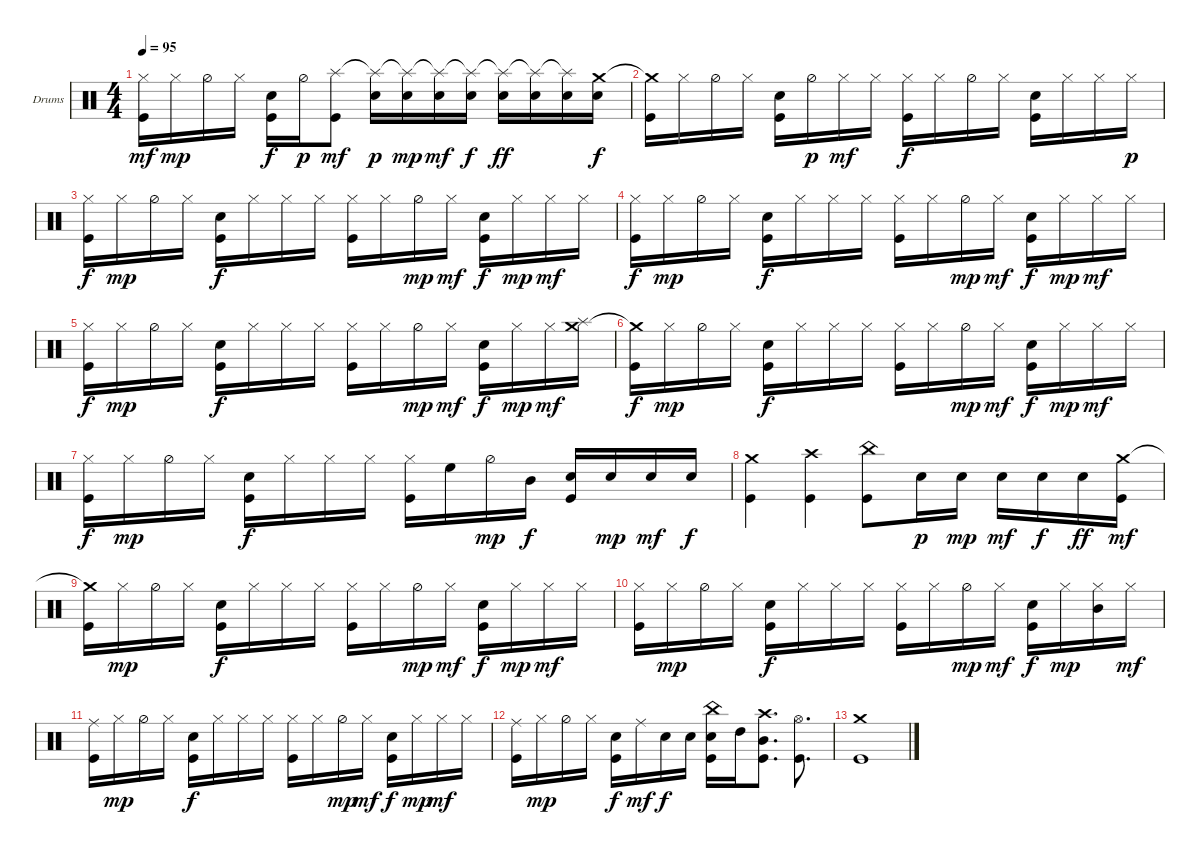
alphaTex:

\defaultSystemsLayout 4
\bracketExtendMode groupsimilarinstruments
\firstSystemTrackNameOrientation horizontal
\otherSystemsTrackNameOrientation horizontal
\track ("Drumkit" "Drums") {instrument percussion}
\staff {score}
\articulation defaults
\ts (4 4)
\tempo 95
\clef neutral
\ks c
("Kick (hit)" "Hi-Hat (closed)").16{dy mf} "Hi-Hat (closed)".16{dy mp} "Hi-Hat (half)".16 "Hi-Hat (closed)".16 ("Kick (hit)" "Snare (hit) 2").16{dy f} "Hi-Hat (half)".16{dy p} ("Kick (hit)" "Splash (hit)").8{dy mf} ("Snare (hit) 2" "Splash (hit)"{t}).16{dy p} ("Snare (hit) 2" "Splash (hit)"{t}).16{dy mp} ("Snare (hit) 2" "Splash (hit)"{t}).16{dy mf} ("Snare (hit) 2" "Splash (hit)"{t}).16{dy f} ("Snare (hit) 2" "Splash (hit)"{t}).16{dy ff} ("Snare (hit) 2" "Splash (hit)"{t}).16 ("Snare (hit) 2" "Splash (hit)"{t}).16 ("Snare (hit) 2" "Crash medium (hit)").16{dy f} |
("Kick (hit)" "Crash medium (hit)"{t}).16 "Hi-Hat (closed)".16 "Hi-Hat (half)".16 "Hi-Hat (closed)".16 ("Snare (hit) 2" "Kick (hit)").16 "Hi-Hat (half)".16{dy p} "Hi-Hat (closed)".16{dy mf} "Hi-Hat (closed)".16 ("Hi-Hat (closed)" "Kick (hit)").16{dy f} "Hi-Hat (closed)".16 "Hi-Hat (half)".16 "Hi-Hat (closed)".16 ("Snare (hit) 2" "Kick (hit)").16 "Hi-Hat (closed)".16 "Hi-Hat (closed)".16 "Hi-Hat (closed)".16{dy p} |
("Kick (hit)" "Hi-Hat (closed)").16{dy f} "Hi-Hat (closed)".16{dy mp} "Hi-Hat (half)".16 "Hi-Hat (closed)".16 ("Kick (hit)" "Snare (hit) 2").16{dy f} "Hi-Hat (closed)".16 "Hi-Hat (closed)".16 "Hi-Hat (closed)".16 ("Hi-Hat (closed)" "Kick (hit)").16 "Hi-Hat (closed)".16 "Hi-Hat (half)".16{dy mp} "Hi-Hat (closed)".16{dy mf} ("Snare (hit) 2" "Kick (hit)").16{dy f} "Hi-Hat (closed)".16{dy mp} "Hi-Hat (closed)".16{dy mf} "Hi-Hat (closed)".16 |
("Kick (hit)" "Hi-Hat (closed)").16{dy f} "Hi-Hat (closed)".16{dy mp} "Hi-Hat (half)".16 "Hi-Hat (closed)".16 ("Kick (hit)" "Snare (hit) 2").16{dy f} "Hi-Hat (closed)".16 "Hi-Hat (closed)".16 "Hi-Hat (closed)".16 ("Hi-Hat (closed)" "Kick (hit)").16 "Hi-Hat (closed)".16 "Hi-Hat (half)".16{dy mp} "Hi-Hat (closed)".16{dy mf} ("Snare (hit) 2" "Kick (hit)").16{dy f} "Hi-Hat (closed)".16{dy mp} "Hi-Hat (closed)".16{dy mf} "Hi-Hat (closed)".16 |
("Kick (hit)" "Hi-Hat (closed)").16{dy f} "Hi-Hat (closed)".16{dy mp} "Hi-Hat (half)".16 "Hi-Hat (closed)".16 ("Kick (hit)" "Snare (hit) 2").16{dy f} "Hi-Hat (closed)".16 "Hi-Hat (closed)".16 "Hi-Hat (closed)".16 ("Hi-Hat (closed)" "Kick (hit)").16 "Hi-Hat (closed)".16 "Hi-Hat (half)".16{dy mp} "Hi-Hat (closed)".16{dy mf} ("Snare (hit) 2" "Kick (hit)").16{dy f} "Hi-Hat (closed)".16{dy mp} "Hi-Hat (closed)".16{dy mf} ("Splash (hit)" "Crash medium (hit)").16 |
("Kick (hit)" "Crash medium (hit)"{t}).16{dy f} "Hi-Hat (closed)".16{dy mp} "Hi-Hat (half)".16 "Hi-Hat (closed)".16 ("Kick (hit)" "Snare (hit) 2").16{dy f} "Hi-Hat (closed)".16 "Hi-Hat (closed)".16 "Hi-Hat (closed)".16 ("Hi-Hat (closed)" "Kick (hit)").16 "Hi-Hat (closed)".16 "Hi-Hat (half)".16{dy mp} "Hi-Hat (closed)".16{dy mf} ("Snare (hit) 2" "Kick (hit)").16{dy f} "Hi-Hat (closed)".16{dy mp} "Hi-Hat (closed)".16{dy mf} "Hi-Hat (closed)".16 |
("Kick (hit)" "Hi-Hat (closed)").16{dy f} "Hi-Hat (closed)".16{dy mp} "Hi-Hat (half)".16 "Hi-Hat (closed)".16 ("Kick (hit)" "Snare (hit) 2").16{dy f} "Hi-Hat (closed)".16 "Hi-Hat (closed)".16 "Hi-Hat (closed)".16 ("Hi-Hat (closed)" "Kick (hit)").16 "High Floor Tom (hit)".16 "Hi-Hat (half)".16{dy mp} "Mid Tom (hit)".16{dy f} ("Snare (hit) 2" "Kick (hit)").16 "Snare (hit) 2".16{dy mp} "Snare (hit) 2".16{dy mf} "Snare (hit) 2".16{dy f} |
("Kick (hit)" "Crash medium (hit)").4 ("Kick (hit)" "Crash high (hit)").4 ("Kick (hit)" "China (hit)").8 "Snare (hit) 2".16{dy p} "Snare (hit) 2".16{dy mp} "Snare (hit) 2".16{dy mf} "Snare (hit) 2".16{dy f} "Snare (hit) 2".16{dy ff} ("Kick (hit)" "Crash medium (hit)").16{dy mf} |
("Kick (hit)" "Crash medium (hit)"{t}).16 "Hi-Hat (closed)".16{dy mp} "Hi-Hat (half)".16 "Hi-Hat (closed)".16 ("Kick (hit)" "Snare (hit) 2").16{dy f} "Hi-Hat (closed)".16 "Hi-Hat (closed)".16 "Hi-Hat (closed)".16 ("Hi-Hat (closed)" "Kick (hit)").16 "Hi-Hat (closed)".16 "Hi-Hat (half)".16{dy mp} "Hi-Hat (closed)".16{dy mf} ("Snare (hit) 2" "Kick (hit)").16{dy f} "Hi-Hat (closed)".16{dy mp} "Hi-Hat (closed)".16{dy mf} "Hi-Hat (closed)".16 |
("Kick (hit)" "Hi-Hat (closed)").16 "Hi-Hat (closed)".16{dy mp} "Hi-Hat (half)".16 "Hi-Hat (closed)".16 ("Kick (hit)" "Snare (hit) 2").16{dy f} "Hi-Hat (closed)".16 "Hi-Hat (closed)".16 "Hi-Hat (closed)".16 ("Hi-Hat (closed)" "Kick (hit)").16 "Hi-Hat (closed)".16 "Hi-Hat (half)".16{dy mp} "Hi-Hat (closed)".16{dy mf} ("Snare (hit) 2" "Kick (hit)").16{dy f} "Hi-Hat (closed)".16{dy mp} ("Hi-Hat (closed)" "Mid Tom (hit)").16 "Hi-Hat (closed)".16{dy mf} |
("Kick (hit)" "Ride (middle)").16 "Hi-Hat (closed)".16{dy mp} "Hi-Hat (half)".16 "Hi-Hat (closed)".16 ("Kick (hit)" "Snare (hit) 2").16{dy f} "Hi-Hat (closed)".16 "Hi-Hat (closed)".16 "Hi-Hat (closed)".16 ("Hi-Hat (closed)" "Kick (hit)").16 "Hi-Hat (closed)".16 "Hi-Hat (half)".16{dy mp} "Hi-Hat (closed)".16{dy mf} ("Snare (hit) 2" "Kick (hit)").16{dy f} "Hi-Hat (closed)".16{dy mp} "Hi-Hat (closed)".16{dy mf} "Hi-Hat (closed)".16 |
("Kick (hit)" "Ride (middle)").16 "Hi-Hat (closed)".16{dy mp} "Hi-Hat (half)".16 "Hi-Hat (closed)".16 ("Kick (hit)" "Snare (hit) 2").16{dy f} "Ride (middle)".16{dy mf} "Snare (hit) 2".16{dy f} "Snare (hit) 2".16 ("Kick (hit)" "Snare (hit) 2" "China (hit)").16 "High Tom (hit)".16 ("Mid Tom (hit)" "Kick (hit)" "Crash high (hit)").8{d} ("Kick (hit)" "Hi-Hat (open)").8{d} |
("Kick (hit)" "Crash medium (hit)").1
